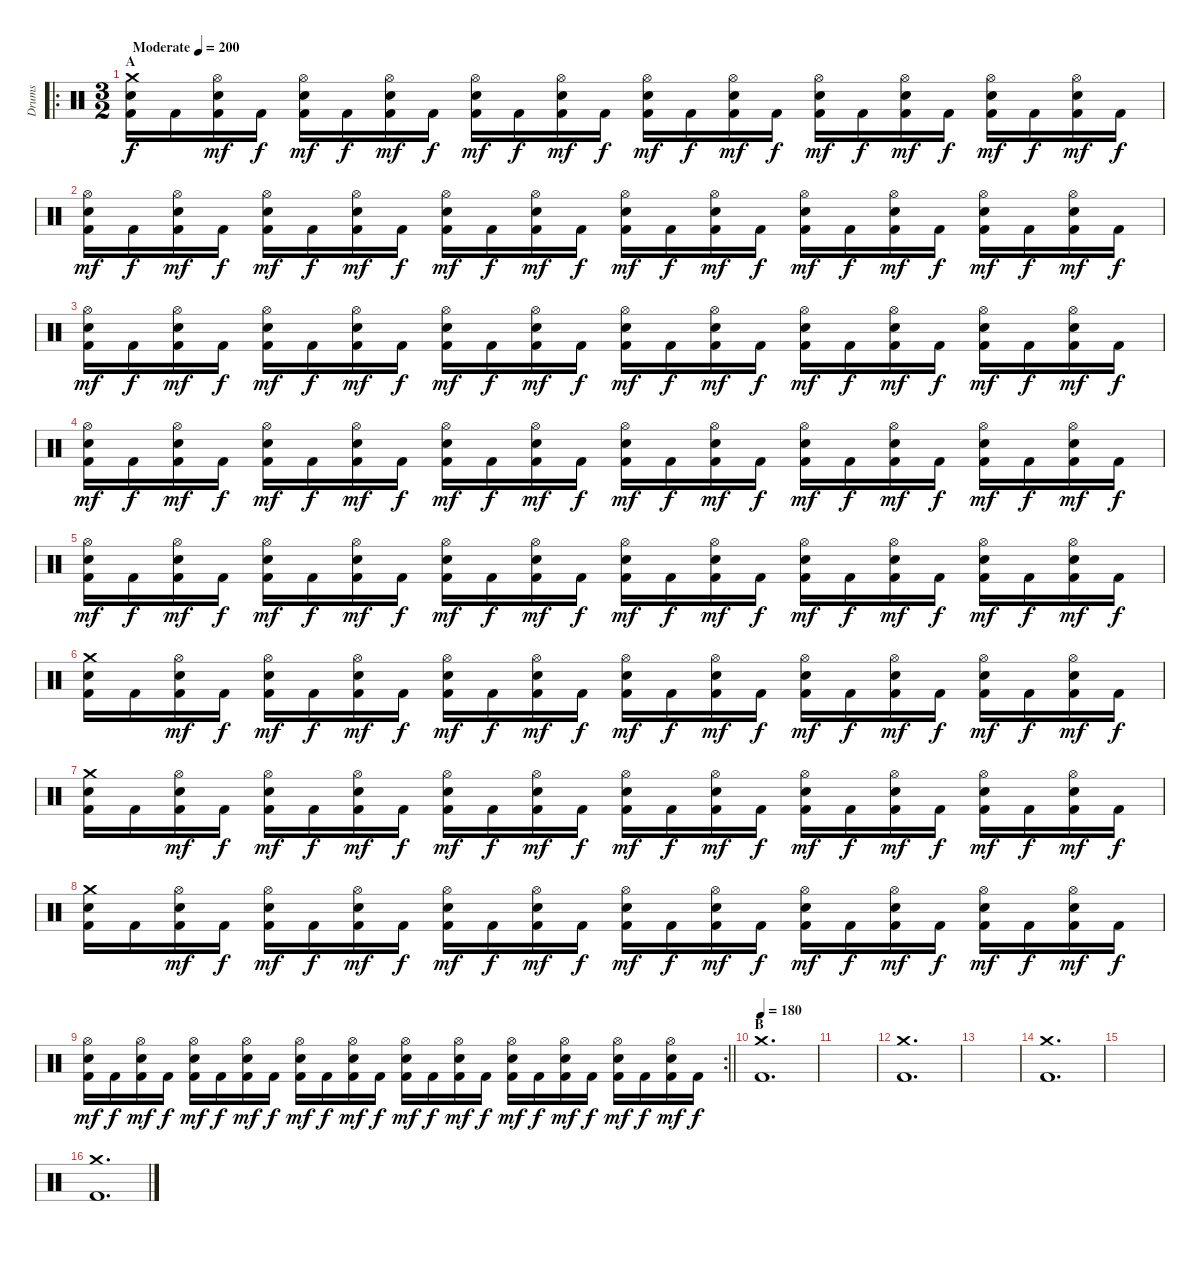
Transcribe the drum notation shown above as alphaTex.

\track ("Drums" "Drums") {instrument percussion}
\staff {score}
\articulation defaults
\ro
\ts (3 2)
\section ("" "A")
\tempo (200 "Moderate")
\clef neutral
\ks c
("Crash medium (hit)" "Electric Snare (hit)" "Kick (hit) 2").16{dy f} "Kick (hit) 2".16 ("Hi-Hat (open)" "Electric Snare (hit)" "Kick (hit) 2").16{dy mf} "Kick (hit) 2".16{dy f} ("Hi-Hat (open)" "Electric Snare (hit)" "Kick (hit) 2").16{dy mf} "Kick (hit) 2".16{dy f} ("Hi-Hat (open)" "Electric Snare (hit)" "Kick (hit) 2").16{dy mf} "Kick (hit) 2".16{dy f} ("Hi-Hat (open)" "Electric Snare (hit)" "Kick (hit) 2").16{dy mf} "Kick (hit) 2".16{dy f} ("Hi-Hat (open)" "Electric Snare (hit)" "Kick (hit) 2").16{dy mf} "Kick (hit) 2".16{dy f} ("Hi-Hat (open)" "Electric Snare (hit)" "Kick (hit) 2").16{dy mf} "Kick (hit) 2".16{dy f} ("Hi-Hat (open)" "Electric Snare (hit)" "Kick (hit) 2").16{dy mf} "Kick (hit) 2".16{dy f} ("Hi-Hat (open)" "Electric Snare (hit)" "Kick (hit) 2").16{dy mf} "Kick (hit) 2".16{dy f} ("Hi-Hat (open)" "Electric Snare (hit)" "Kick (hit) 2").16{dy mf} "Kick (hit) 2".16{dy f} ("Hi-Hat (open)" "Electric Snare (hit)" "Kick (hit) 2").16{dy mf} "Kick (hit) 2".16{dy f} ("Hi-Hat (open)" "Electric Snare (hit)" "Kick (hit) 2").16{dy mf} "Kick (hit) 2".16{dy f} |
("Hi-Hat (open)" "Electric Snare (hit)" "Kick (hit) 2").16{dy mf} "Kick (hit) 2".16{dy f} ("Hi-Hat (open)" "Electric Snare (hit)" "Kick (hit) 2").16{dy mf} "Kick (hit) 2".16{dy f} ("Hi-Hat (open)" "Electric Snare (hit)" "Kick (hit) 2").16{dy mf} "Kick (hit) 2".16{dy f} ("Hi-Hat (open)" "Electric Snare (hit)" "Kick (hit) 2").16{dy mf} "Kick (hit) 2".16{dy f} ("Hi-Hat (open)" "Electric Snare (hit)" "Kick (hit) 2").16{dy mf} "Kick (hit) 2".16{dy f} ("Hi-Hat (open)" "Electric Snare (hit)" "Kick (hit) 2").16{dy mf} "Kick (hit) 2".16{dy f} ("Hi-Hat (open)" "Electric Snare (hit)" "Kick (hit) 2").16{dy mf} "Kick (hit) 2".16{dy f} ("Hi-Hat (open)" "Electric Snare (hit)" "Kick (hit) 2").16{dy mf} "Kick (hit) 2".16{dy f} ("Hi-Hat (open)" "Electric Snare (hit)" "Kick (hit) 2").16{dy mf} "Kick (hit) 2".16{dy f} ("Hi-Hat (open)" "Electric Snare (hit)" "Kick (hit) 2").16{dy mf} "Kick (hit) 2".16{dy f} ("Hi-Hat (open)" "Electric Snare (hit)" "Kick (hit) 2").16{dy mf} "Kick (hit) 2".16{dy f} ("Hi-Hat (open)" "Electric Snare (hit)" "Kick (hit) 2").16{dy mf} "Kick (hit) 2".16{dy f} |
("Hi-Hat (open)" "Electric Snare (hit)" "Kick (hit) 2").16{dy mf} "Kick (hit) 2".16{dy f} ("Hi-Hat (open)" "Electric Snare (hit)" "Kick (hit) 2").16{dy mf} "Kick (hit) 2".16{dy f} ("Hi-Hat (open)" "Electric Snare (hit)" "Kick (hit) 2").16{dy mf} "Kick (hit) 2".16{dy f} ("Hi-Hat (open)" "Electric Snare (hit)" "Kick (hit) 2").16{dy mf} "Kick (hit) 2".16{dy f} ("Hi-Hat (open)" "Electric Snare (hit)" "Kick (hit) 2").16{dy mf} "Kick (hit) 2".16{dy f} ("Hi-Hat (open)" "Electric Snare (hit)" "Kick (hit) 2").16{dy mf} "Kick (hit) 2".16{dy f} ("Hi-Hat (open)" "Electric Snare (hit)" "Kick (hit) 2").16{dy mf} "Kick (hit) 2".16{dy f} ("Hi-Hat (open)" "Electric Snare (hit)" "Kick (hit) 2").16{dy mf} "Kick (hit) 2".16{dy f} ("Hi-Hat (open)" "Electric Snare (hit)" "Kick (hit) 2").16{dy mf} "Kick (hit) 2".16{dy f} ("Hi-Hat (open)" "Electric Snare (hit)" "Kick (hit) 2").16{dy mf} "Kick (hit) 2".16{dy f} ("Hi-Hat (open)" "Electric Snare (hit)" "Kick (hit) 2").16{dy mf} "Kick (hit) 2".16{dy f} ("Hi-Hat (open)" "Electric Snare (hit)" "Kick (hit) 2").16{dy mf} "Kick (hit) 2".16{dy f} |
("Hi-Hat (open)" "Electric Snare (hit)" "Kick (hit) 2").16{dy mf} "Kick (hit) 2".16{dy f} ("Hi-Hat (open)" "Electric Snare (hit)" "Kick (hit) 2").16{dy mf} "Kick (hit) 2".16{dy f} ("Hi-Hat (open)" "Electric Snare (hit)" "Kick (hit) 2").16{dy mf} "Kick (hit) 2".16{dy f} ("Hi-Hat (open)" "Electric Snare (hit)" "Kick (hit) 2").16{dy mf} "Kick (hit) 2".16{dy f} ("Hi-Hat (open)" "Electric Snare (hit)" "Kick (hit) 2").16{dy mf} "Kick (hit) 2".16{dy f} ("Hi-Hat (open)" "Electric Snare (hit)" "Kick (hit) 2").16{dy mf} "Kick (hit) 2".16{dy f} ("Hi-Hat (open)" "Electric Snare (hit)" "Kick (hit) 2").16{dy mf} "Kick (hit) 2".16{dy f} ("Hi-Hat (open)" "Electric Snare (hit)" "Kick (hit) 2").16{dy mf} "Kick (hit) 2".16{dy f} ("Hi-Hat (open)" "Electric Snare (hit)" "Kick (hit) 2").16{dy mf} "Kick (hit) 2".16{dy f} ("Hi-Hat (open)" "Electric Snare (hit)" "Kick (hit) 2").16{dy mf} "Kick (hit) 2".16{dy f} ("Hi-Hat (open)" "Electric Snare (hit)" "Kick (hit) 2").16{dy mf} "Kick (hit) 2".16{dy f} ("Hi-Hat (open)" "Electric Snare (hit)" "Kick (hit) 2").16{dy mf} "Kick (hit) 2".16{dy f} |
("Hi-Hat (open)" "Electric Snare (hit)" "Kick (hit) 2").16{dy mf} "Kick (hit) 2".16{dy f} ("Hi-Hat (open)" "Electric Snare (hit)" "Kick (hit) 2").16{dy mf} "Kick (hit) 2".16{dy f} ("Hi-Hat (open)" "Electric Snare (hit)" "Kick (hit) 2").16{dy mf} "Kick (hit) 2".16{dy f} ("Hi-Hat (open)" "Electric Snare (hit)" "Kick (hit) 2").16{dy mf} "Kick (hit) 2".16{dy f} ("Hi-Hat (open)" "Electric Snare (hit)" "Kick (hit) 2").16{dy mf} "Kick (hit) 2".16{dy f} ("Hi-Hat (open)" "Electric Snare (hit)" "Kick (hit) 2").16{dy mf} "Kick (hit) 2".16{dy f} ("Hi-Hat (open)" "Electric Snare (hit)" "Kick (hit) 2").16{dy mf} "Kick (hit) 2".16{dy f} ("Hi-Hat (open)" "Electric Snare (hit)" "Kick (hit) 2").16{dy mf} "Kick (hit) 2".16{dy f} ("Hi-Hat (open)" "Electric Snare (hit)" "Kick (hit) 2").16{dy mf} "Kick (hit) 2".16{dy f} ("Hi-Hat (open)" "Electric Snare (hit)" "Kick (hit) 2").16{dy mf} "Kick (hit) 2".16{dy f} ("Hi-Hat (open)" "Electric Snare (hit)" "Kick (hit) 2").16{dy mf} "Kick (hit) 2".16{dy f} ("Hi-Hat (open)" "Electric Snare (hit)" "Kick (hit) 2").16{dy mf} "Kick (hit) 2".16{dy f} |
("Crash medium (hit)" "Electric Snare (hit)" "Kick (hit) 2").16 "Kick (hit) 2".16 ("Hi-Hat (open)" "Electric Snare (hit)" "Kick (hit) 2").16{dy mf} "Kick (hit) 2".16{dy f} ("Hi-Hat (open)" "Electric Snare (hit)" "Kick (hit) 2").16{dy mf} "Kick (hit) 2".16{dy f} ("Hi-Hat (open)" "Electric Snare (hit)" "Kick (hit) 2").16{dy mf} "Kick (hit) 2".16{dy f} ("Hi-Hat (open)" "Electric Snare (hit)" "Kick (hit) 2").16{dy mf} "Kick (hit) 2".16{dy f} ("Hi-Hat (open)" "Electric Snare (hit)" "Kick (hit) 2").16{dy mf} "Kick (hit) 2".16{dy f} ("Hi-Hat (open)" "Electric Snare (hit)" "Kick (hit) 2").16{dy mf} "Kick (hit) 2".16{dy f} ("Hi-Hat (open)" "Electric Snare (hit)" "Kick (hit) 2").16{dy mf} "Kick (hit) 2".16{dy f} ("Hi-Hat (open)" "Electric Snare (hit)" "Kick (hit) 2").16{dy mf} "Kick (hit) 2".16{dy f} ("Hi-Hat (open)" "Electric Snare (hit)" "Kick (hit) 2").16{dy mf} "Kick (hit) 2".16{dy f} ("Hi-Hat (open)" "Electric Snare (hit)" "Kick (hit) 2").16{dy mf} "Kick (hit) 2".16{dy f} ("Hi-Hat (open)" "Electric Snare (hit)" "Kick (hit) 2").16{dy mf} "Kick (hit) 2".16{dy f} |
("Crash medium (hit)" "Electric Snare (hit)" "Kick (hit) 2").16 "Kick (hit) 2".16 ("Hi-Hat (open)" "Electric Snare (hit)" "Kick (hit) 2").16{dy mf} "Kick (hit) 2".16{dy f} ("Hi-Hat (open)" "Electric Snare (hit)" "Kick (hit) 2").16{dy mf} "Kick (hit) 2".16{dy f} ("Hi-Hat (open)" "Electric Snare (hit)" "Kick (hit) 2").16{dy mf} "Kick (hit) 2".16{dy f} ("Hi-Hat (open)" "Electric Snare (hit)" "Kick (hit) 2").16{dy mf} "Kick (hit) 2".16{dy f} ("Hi-Hat (open)" "Electric Snare (hit)" "Kick (hit) 2").16{dy mf} "Kick (hit) 2".16{dy f} ("Hi-Hat (open)" "Electric Snare (hit)" "Kick (hit) 2").16{dy mf} "Kick (hit) 2".16{dy f} ("Hi-Hat (open)" "Electric Snare (hit)" "Kick (hit) 2").16{dy mf} "Kick (hit) 2".16{dy f} ("Hi-Hat (open)" "Electric Snare (hit)" "Kick (hit) 2").16{dy mf} "Kick (hit) 2".16{dy f} ("Hi-Hat (open)" "Electric Snare (hit)" "Kick (hit) 2").16{dy mf} "Kick (hit) 2".16{dy f} ("Hi-Hat (open)" "Electric Snare (hit)" "Kick (hit) 2").16{dy mf} "Kick (hit) 2".16{dy f} ("Hi-Hat (open)" "Electric Snare (hit)" "Kick (hit) 2").16{dy mf} "Kick (hit) 2".16{dy f} |
("Crash medium (hit)" "Electric Snare (hit)" "Kick (hit) 2").16 "Kick (hit) 2".16 ("Hi-Hat (open)" "Electric Snare (hit)" "Kick (hit) 2").16{dy mf} "Kick (hit) 2".16{dy f} ("Hi-Hat (open)" "Electric Snare (hit)" "Kick (hit) 2").16{dy mf} "Kick (hit) 2".16{dy f} ("Hi-Hat (open)" "Electric Snare (hit)" "Kick (hit) 2").16{dy mf} "Kick (hit) 2".16{dy f} ("Hi-Hat (open)" "Electric Snare (hit)" "Kick (hit) 2").16{dy mf} "Kick (hit) 2".16{dy f} ("Hi-Hat (open)" "Electric Snare (hit)" "Kick (hit) 2").16{dy mf} "Kick (hit) 2".16{dy f} ("Hi-Hat (open)" "Electric Snare (hit)" "Kick (hit) 2").16{dy mf} "Kick (hit) 2".16{dy f} ("Hi-Hat (open)" "Electric Snare (hit)" "Kick (hit) 2").16{dy mf} "Kick (hit) 2".16{dy f} ("Hi-Hat (open)" "Electric Snare (hit)" "Kick (hit) 2").16{dy mf} "Kick (hit) 2".16{dy f} ("Hi-Hat (open)" "Electric Snare (hit)" "Kick (hit) 2").16{dy mf} "Kick (hit) 2".16{dy f} ("Hi-Hat (open)" "Electric Snare (hit)" "Kick (hit) 2").16{dy mf} "Kick (hit) 2".16{dy f} ("Hi-Hat (open)" "Electric Snare (hit)" "Kick (hit) 2").16{dy mf} "Kick (hit) 2".16{dy f} |
\rc 2
\barLineRight lightlight
("Hi-Hat (open)" "Electric Snare (hit)" "Kick (hit) 2").16{dy mf} "Kick (hit) 2".16{dy f} ("Hi-Hat (open)" "Electric Snare (hit)" "Kick (hit) 2").16{dy mf} "Kick (hit) 2".16{dy f} ("Hi-Hat (open)" "Electric Snare (hit)" "Kick (hit) 2").16{dy mf} "Kick (hit) 2".16{dy f} ("Hi-Hat (open)" "Electric Snare (hit)" "Kick (hit) 2").16{dy mf} "Kick (hit) 2".16{dy f} ("Hi-Hat (open)" "Electric Snare (hit)" "Kick (hit) 2").16{dy mf} "Kick (hit) 2".16{dy f} ("Hi-Hat (open)" "Electric Snare (hit)" "Kick (hit) 2").16{dy mf} "Kick (hit) 2".16{dy f} ("Hi-Hat (open)" "Electric Snare (hit)" "Kick (hit) 2").16{dy mf} "Kick (hit) 2".16{dy f} ("Hi-Hat (open)" "Electric Snare (hit)" "Kick (hit) 2").16{dy mf} "Kick (hit) 2".16{dy f} ("Hi-Hat (open)" "Electric Snare (hit)" "Kick (hit) 2").16{dy mf} "Kick (hit) 2".16{dy f} ("Hi-Hat (open)" "Electric Snare (hit)" "Kick (hit) 2").16{dy mf} "Kick (hit) 2".16{dy f} ("Hi-Hat (open)" "Electric Snare (hit)" "Kick (hit) 2").16{dy mf} "Kick (hit) 2".16{dy f} ("Hi-Hat (open)" "Electric Snare (hit)" "Kick (hit) 2").16{dy mf} "Kick (hit) 2".16{dy f} |
\section ("" "B")
\tempo 180
("Crash medium (hit)" "Kick (hit) 2").1{d} |
|
("Crash medium (hit)" "Kick (hit) 2").1{d} |
|
("Crash medium (hit)" "Kick (hit) 2").1{d} |
|
("Crash medium (hit)" "Kick (hit) 2").1{d}
